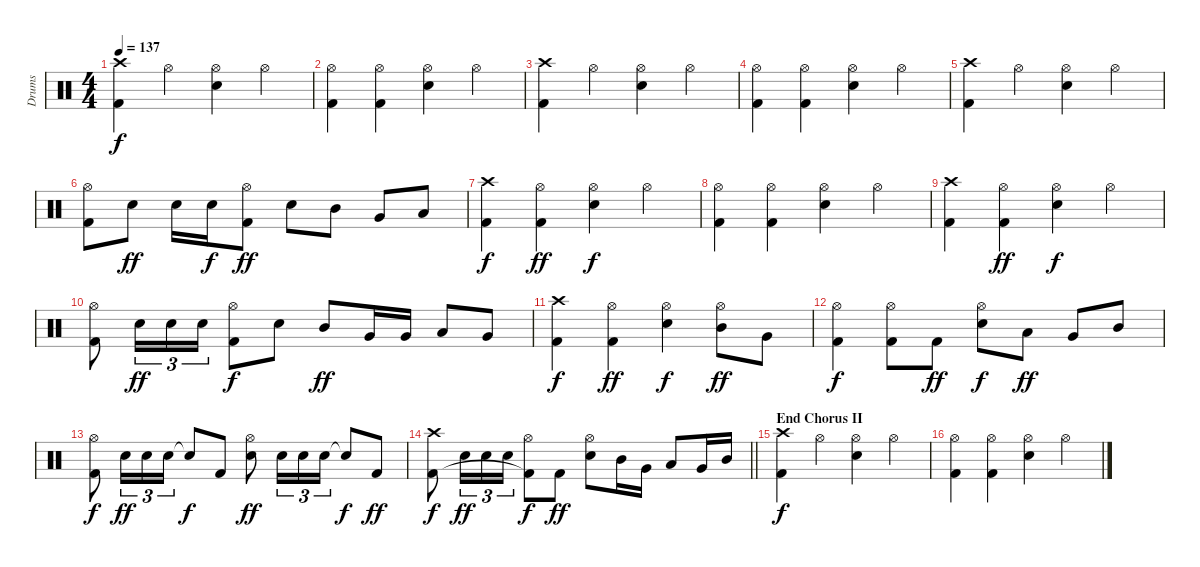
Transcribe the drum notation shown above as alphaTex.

\track ("Drums" "Drums") {instrument percussion}
\staff {score}
\articulation defaults
\ts (4 4)
\tempo 137
\clef neutral
\ks c
("Crash high (hit)" "Kick (hit) 2").4{dy f} "Hi-Hat (open)".4 ("Hi-Hat (open)" "Snare (hit) 2").4 "Hi-Hat (open)".4 |
("Hi-Hat (open)" "Kick (hit) 2").4 ("Hi-Hat (open)" "Kick (hit) 2").4 ("Hi-Hat (open)" "Snare (hit) 2").4 "Hi-Hat (open)".4 |
("Crash high (hit)" "Kick (hit) 2").4 "Hi-Hat (open)".4 ("Hi-Hat (open)" "Snare (hit) 2").4 "Hi-Hat (open)".4 |
("Hi-Hat (open)" "Kick (hit) 2").4 ("Hi-Hat (open)" "Kick (hit) 2").4 ("Hi-Hat (open)" "Snare (hit) 2").4 "Hi-Hat (open)".4 |
("Crash high (hit)" "Kick (hit) 2").4 "Hi-Hat (open)".4 ("Hi-Hat (open)" "Snare (hit) 2").4 "Hi-Hat (open)".4 |
("Hi-Hat (open)" "Kick (hit) 2").8 "Snare (hit) 2".8{dy ff} "Snare (hit) 2".16 "Snare (hit) 2".16{dy f} ("Hi-Hat (open)" "Kick (hit) 2").8{dy ff} "Snare (hit) 2".8 "Mid Tom (hit)".8 "Very Low Tom (hit)".8 "Low Tom (hit)".8 |
("Crash high (hit)" "Kick (hit) 2").4{dy f} ("Hi-Hat (open)" "Kick (hit) 2").4{dy ff} ("Hi-Hat (open)" "Snare (hit) 2").4{dy f} "Hi-Hat (open)".4 |
("Hi-Hat (open)" "Kick (hit) 2").4 ("Hi-Hat (open)" "Kick (hit) 2").4 ("Hi-Hat (open)" "Snare (hit) 2").4 "Hi-Hat (open)".4 |
("Crash high (hit)" "Kick (hit) 2").4 ("Hi-Hat (open)" "Kick (hit) 2").4{dy ff} ("Hi-Hat (open)" "Snare (hit) 2").4{dy f} "Hi-Hat (open)".4 |
("Hi-Hat (open)" "Kick (hit) 2").8 "Snare (hit) 2".16{tu (3 2) dy ff} "Snare (hit) 2".16{tu (3 2)} "Snare (hit) 2".16{tu (3 2)} ("Hi-Hat (open)" "Kick (hit) 2").8{dy f} "Snare (hit) 2".8 "Mid Tom (hit)".8{dy ff} "Very Low Tom (hit)".16 "Very Low Tom (hit)".16 "Low Tom (hit)".8 "Very Low Tom (hit)".8 |
("Crash high (hit)" "Kick (hit) 2").4{dy f} ("Hi-Hat (open)" "Kick (hit) 2").4{dy ff} ("Hi-Hat (open)" "Snare (hit) 2").4{dy f} ("Hi-Hat (open)" "Mid Tom (hit)").8{dy ff} "Very Low Tom (hit)".8 |
("Hi-Hat (open)" "Kick (hit) 2").4{dy f} ("Hi-Hat (open)" "Kick (hit) 2").8 "Kick (hit) 2".8{dy ff} ("Hi-Hat (open)" "Snare (hit) 2").8{dy f} "Low Tom (hit)".8{dy ff} "Very Low Tom (hit)".8 "Mid Tom (hit)".8 |
("Hi-Hat (open)" "Kick (hit) 2").8{dy f} "Snare (hit) 2".16{tu (3 2) dy ff} "Snare (hit) 2".16{tu (3 2)} "Snare (hit) 2".16{tu (3 2)} "Snare (hit) 2"{t}.8{dy f} "Kick (hit) 2".8 ("Hi-Hat (open)" "Snare (hit) 2").8{dy ff} "Snare (hit) 2".16{tu (3 2)} "Snare (hit) 2".16{tu (3 2)} "Snare (hit) 2".16{tu (3 2)} "Snare (hit)"{t}.8{dy f} "Kick (hit) 2".8{dy ff} |
\barLineRight lightlight
("Crash high (hit)" "Kick (hit) 2").8{dy f} "Snare (hit) 2".16{tu (3 2) dy ff} "Snare (hit) 2".16{tu (3 2)} "Snare (hit) 2".16{tu (3 2)} ("Hi-Hat (open)" "Kick (hit) 2"{t}).8{dy f} "Kick (hit) 2".8{dy ff} ("Hi-Hat (open)" "Snare (hit) 2").8 "Mid Tom (hit)".16 "Very Low Tom (hit)".16 "Low Tom (hit)".8 "Very Low Tom (hit)".16 "Mid Tom (hit)".16 |
\section ("" "End Chorus II")
("Crash high (hit)" "Kick (hit) 2").4{dy f} "Hi-Hat (open)".4 ("Hi-Hat (open)" "Snare (hit) 2").4 "Hi-Hat (open)".4 |
("Hi-Hat (open)" "Kick (hit) 2").4 ("Hi-Hat (open)" "Kick (hit) 2").4 ("Hi-Hat (open)" "Snare (hit) 2").4 "Hi-Hat (open)".4
